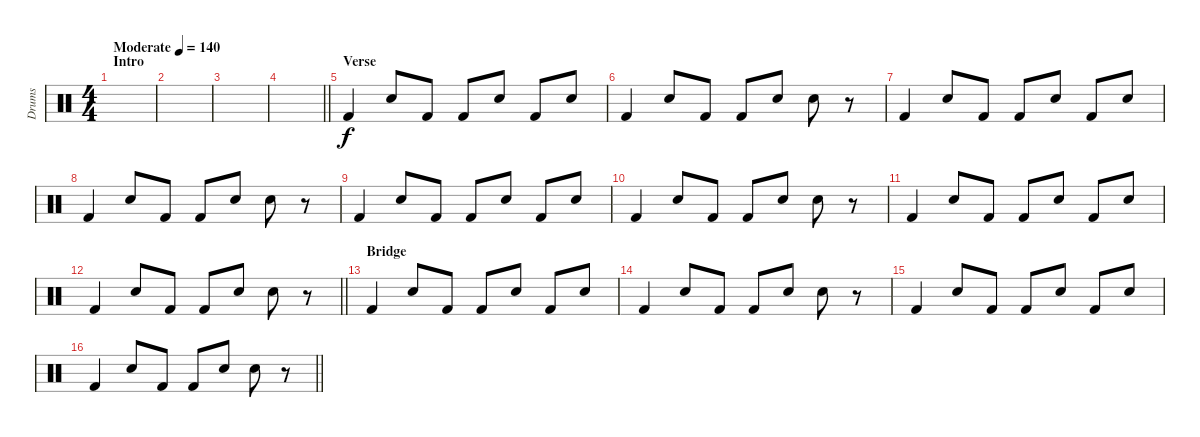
\track ("Drums" "Drums") {instrument percussion}
\staff {score}
\articulation defaults
\ts (4 4)
\section ("" "Intro")
\tempo (140 "Moderate")
\clef neutral
\ks c
|
|
|
\barLineRight lightlight
|
\section ("" "Verse")
"Kick (hit) 2".4 "Electric Snare (hit)".8 "Kick (hit) 2".8 "Kick (hit) 2".8 "Electric Snare (hit)".8 "Kick (hit) 2".8 "Electric Snare (hit)".8 |
"Kick (hit) 2".4 "Electric Snare (hit)".8 "Kick (hit) 2".8 "Kick (hit) 2".8 "Electric Snare (hit)".8 "Electric Snare (hit)".8 r.8 |
"Kick (hit) 2".4 "Electric Snare (hit)".8 "Kick (hit) 2".8 "Kick (hit) 2".8 "Electric Snare (hit)".8 "Kick (hit) 2".8 "Electric Snare (hit)".8 |
"Kick (hit) 2".4 "Electric Snare (hit)".8 "Kick (hit) 2".8 "Kick (hit) 2".8 "Electric Snare (hit)".8 "Electric Snare (hit)".8 r.8 |
"Kick (hit) 2".4 "Electric Snare (hit)".8 "Kick (hit) 2".8 "Kick (hit) 2".8 "Electric Snare (hit)".8 "Kick (hit) 2".8 "Electric Snare (hit)".8 |
"Kick (hit) 2".4 "Electric Snare (hit)".8 "Kick (hit) 2".8 "Kick (hit) 2".8 "Electric Snare (hit)".8 "Electric Snare (hit)".8 r.8 |
"Kick (hit) 2".4 "Electric Snare (hit)".8 "Kick (hit) 2".8 "Kick (hit) 2".8 "Electric Snare (hit)".8 "Kick (hit) 2".8 "Electric Snare (hit)".8 |
\barLineRight lightlight "Kick (hit) 2".4 "Electric Snare (hit)".8 "Kick (hit) 2".8 "Kick (hit) 2".8 "Electric Snare (hit)".8 "Electric Snare (hit)".8
r.8 |
\section ("" "Bridge")
"Kick (hit) 2".4 "Electric Snare (hit)".8 "Kick (hit) 2".8 "Kick (hit) 2".8 "Electric Snare (hit)".8 "Kick (hit) 2".8 "Electric Snare (hit)".8 |
"Kick (hit) 2".4 "Electric Snare (hit)".8 "Kick (hit) 2".8 "Kick (hit) 2".8 "Electric Snare (hit)".8 "Electric Snare (hit)".8 r.8 |
"Kick (hit) 2".4 "Electric Snare (hit)".8 "Kick (hit) 2".8 "Kick (hit) 2".8 "Electric Snare (hit)".8 "Kick (hit) 2".8 "Electric Snare (hit)".8 |
\barLineRight lightlight "Kick (hit) 2".4 "Electric Snare (hit)".8 "Kick (hit) 2".8 "Kick (hit) 2".8 "Electric Snare (hit)".8 "Electric Snare (hit)".8
r.8
